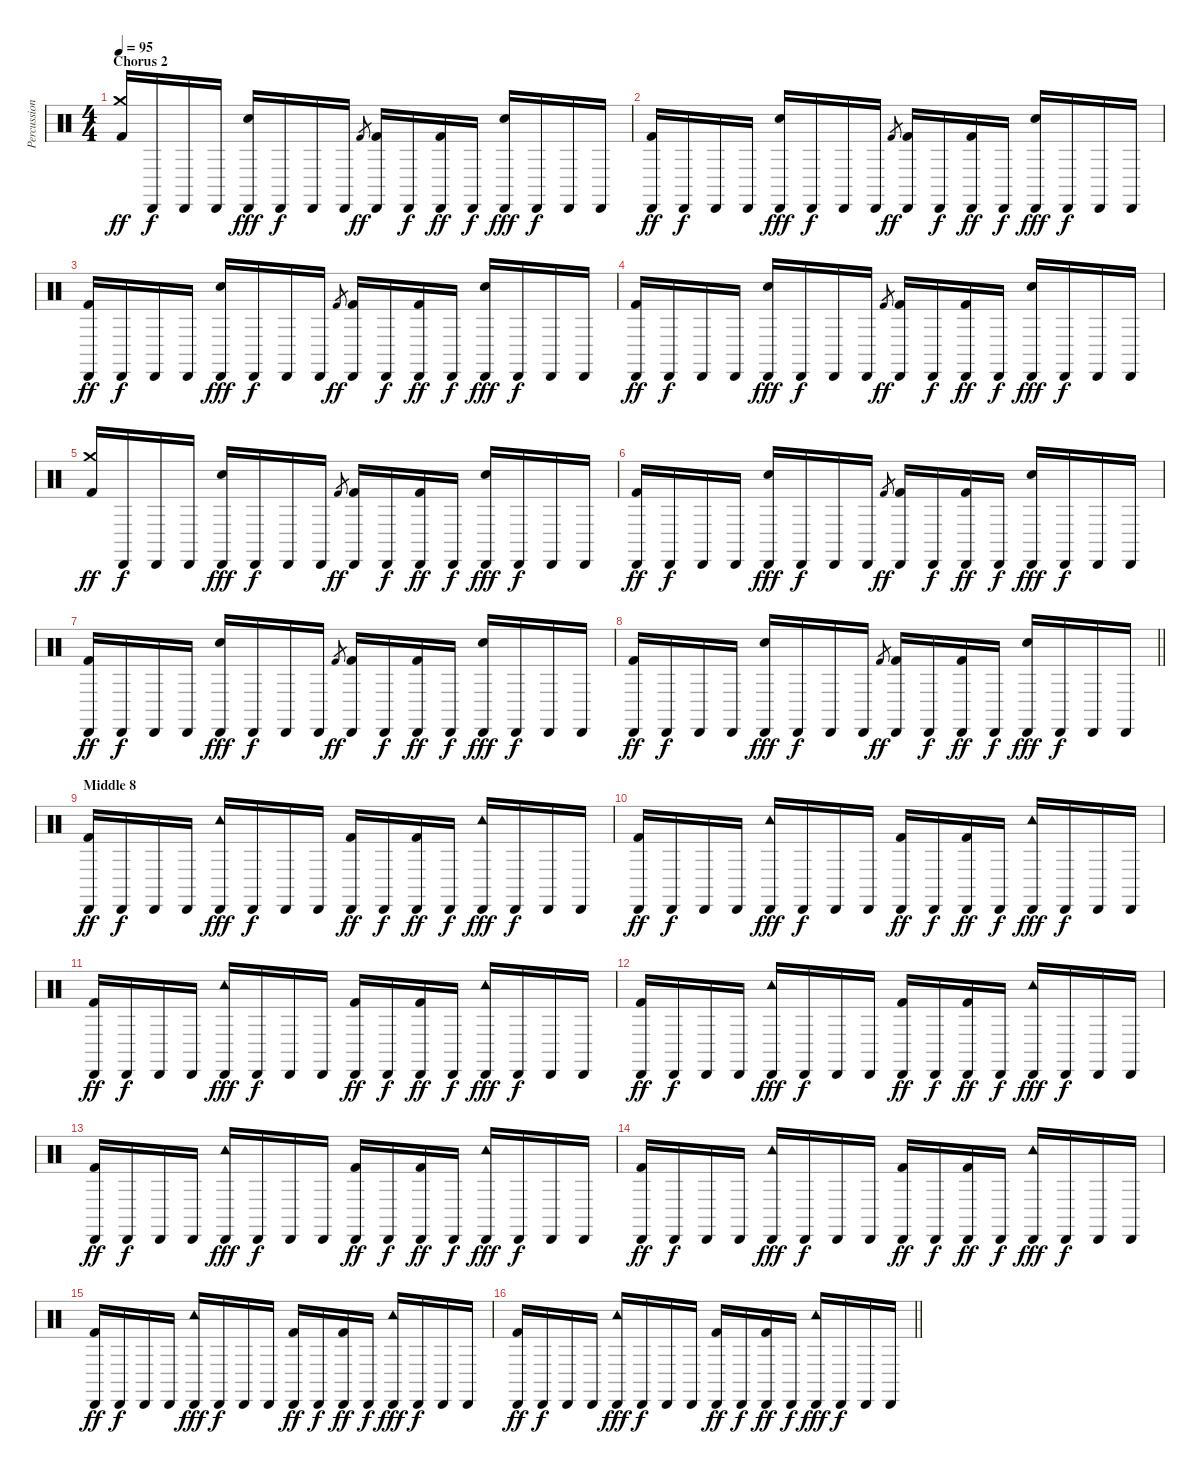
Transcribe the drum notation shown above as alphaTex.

\track ("Percussion" "Percussion") {instrument percussion}
\staff {score}
\articulation defaults
\ts (4 4)
\section ("" "Chorus 2")
\tempo 95
\clef neutral
\ks c
("Crash medium (hit)" "Kick (hit) 2").16{dy ff} "Cabasa (hit)".16{dy f} "Cabasa (hit)".16 "Cabasa (hit)".16 ("Cabasa (hit)" "Electric Snare (hit)").16{dy fff} "Cabasa (hit)".16{dy f} "Cabasa (hit)".16 "Cabasa (hit)".16 "Kick (hit) 2".8{gr dy ff} ("Cabasa (hit)" "Kick (hit) 2").16 "Cabasa (hit)".16{dy f} ("Cabasa (hit)" "Kick (hit) 2").16{dy ff} "Cabasa (hit)".16{dy f} ("Cabasa (hit)" "Electric Snare (hit)").16{dy fff} "Cabasa (hit)".16{dy f} "Cabasa (hit)".16 "Cabasa (hit)".16 |
("Cabasa (hit)" "Kick (hit) 2").16{dy ff} "Cabasa (hit)".16{dy f} "Cabasa (hit)".16 "Cabasa (hit)".16 ("Cabasa (hit)" "Electric Snare (hit)").16{dy fff} "Cabasa (hit)".16{dy f} "Cabasa (hit)".16 "Cabasa (hit)".16 "Kick (hit) 2".8{gr dy ff} ("Cabasa (hit)" "Kick (hit) 2").16 "Cabasa (hit)".16{dy f} ("Cabasa (hit)" "Kick (hit) 2").16{dy ff} "Cabasa (hit)".16{dy f} ("Cabasa (hit)" "Electric Snare (hit)").16{dy fff} "Cabasa (hit)".16{dy f} "Cabasa (hit)".16 "Cabasa (hit)".16 |
("Cabasa (hit)" "Kick (hit) 2").16{dy ff} "Cabasa (hit)".16{dy f} "Cabasa (hit)".16 "Cabasa (hit)".16 ("Cabasa (hit)" "Electric Snare (hit)").16{dy fff} "Cabasa (hit)".16{dy f} "Cabasa (hit)".16 "Cabasa (hit)".16 "Kick (hit) 2".8{gr dy ff} ("Cabasa (hit)" "Kick (hit) 2").16 "Cabasa (hit)".16{dy f} ("Cabasa (hit)" "Kick (hit) 2").16{dy ff} "Cabasa (hit)".16{dy f} ("Cabasa (hit)" "Electric Snare (hit)").16{dy fff} "Cabasa (hit)".16{dy f} "Cabasa (hit)".16 "Cabasa (hit)".16 |
("Cabasa (hit)" "Kick (hit) 2").16{dy ff} "Cabasa (hit)".16{dy f} "Cabasa (hit)".16 "Cabasa (hit)".16 ("Cabasa (hit)" "Electric Snare (hit)").16{dy fff} "Cabasa (hit)".16{dy f} "Cabasa (hit)".16 "Cabasa (hit)".16 "Kick (hit) 2".8{gr dy ff} ("Cabasa (hit)" "Kick (hit) 2").16 "Cabasa (hit)".16{dy f} ("Cabasa (hit)" "Kick (hit) 2").16{dy ff} "Cabasa (hit)".16{dy f} ("Cabasa (hit)" "Electric Snare (hit)").16{dy fff} "Cabasa (hit)".16{dy f} "Cabasa (hit)".16 "Cabasa (hit)".16 |
("Crash medium (hit)" "Kick (hit) 2").16{dy ff} "Cabasa (hit)".16{dy f} "Cabasa (hit)".16 "Cabasa (hit)".16 ("Cabasa (hit)" "Electric Snare (hit)").16{dy fff} "Cabasa (hit)".16{dy f} "Cabasa (hit)".16 "Cabasa (hit)".16 "Kick (hit) 2".8{gr dy ff} ("Cabasa (hit)" "Kick (hit) 2").16 "Cabasa (hit)".16{dy f} ("Cabasa (hit)" "Kick (hit) 2").16{dy ff} "Cabasa (hit)".16{dy f} ("Cabasa (hit)" "Electric Snare (hit)").16{dy fff} "Cabasa (hit)".16{dy f} "Cabasa (hit)".16 "Cabasa (hit)".16 |
("Cabasa (hit)" "Kick (hit) 2").16{dy ff} "Cabasa (hit)".16{dy f} "Cabasa (hit)".16 "Cabasa (hit)".16 ("Cabasa (hit)" "Electric Snare (hit)").16{dy fff} "Cabasa (hit)".16{dy f} "Cabasa (hit)".16 "Cabasa (hit)".16 "Kick (hit) 2".8{gr dy ff} ("Cabasa (hit)" "Kick (hit) 2").16 "Cabasa (hit)".16{dy f} ("Cabasa (hit)" "Kick (hit) 2").16{dy ff} "Cabasa (hit)".16{dy f} ("Cabasa (hit)" "Electric Snare (hit)").16{dy fff} "Cabasa (hit)".16{dy f} "Cabasa (hit)".16 "Cabasa (hit)".16 |
("Cabasa (hit)" "Kick (hit) 2").16{dy ff} "Cabasa (hit)".16{dy f} "Cabasa (hit)".16 "Cabasa (hit)".16 ("Cabasa (hit)" "Electric Snare (hit)").16{dy fff} "Cabasa (hit)".16{dy f} "Cabasa (hit)".16 "Cabasa (hit)".16 "Kick (hit) 2".8{gr dy ff} ("Cabasa (hit)" "Kick (hit) 2").16 "Cabasa (hit)".16{dy f} ("Cabasa (hit)" "Kick (hit) 2").16{dy ff} "Cabasa (hit)".16{dy f} ("Cabasa (hit)" "Electric Snare (hit)").16{dy fff} "Cabasa (hit)".16{dy f} "Cabasa (hit)".16 "Cabasa (hit)".16 |
\barLineRight lightlight
("Cabasa (hit)" "Kick (hit) 2").16{dy ff} "Cabasa (hit)".16{dy f} "Cabasa (hit)".16 "Cabasa (hit)".16 ("Cabasa (hit)" "Electric Snare (hit)").16{dy fff} "Cabasa (hit)".16{dy f} "Cabasa (hit)".16 "Cabasa (hit)".16 "Kick (hit) 2".8{gr dy ff} ("Cabasa (hit)" "Kick (hit) 2").16 "Cabasa (hit)".16{dy f} ("Cabasa (hit)" "Kick (hit) 2").16{dy ff} "Cabasa (hit)".16{dy f} ("Cabasa (hit)" "Electric Snare (hit)").16{dy fff} "Cabasa (hit)".16{dy f} "Cabasa (hit)".16 "Cabasa (hit)".16 |
\section ("" "Middle 8")
("Cabasa (hit)" "Kick (hit) 2").16{dy ff} "Cabasa (hit)".16{dy f} "Cabasa (hit)".16 "Cabasa (hit)".16 ("Cabasa (hit)" "Tambourine (hit)").16{dy fff} "Cabasa (hit)".16{dy f} "Cabasa (hit)".16 "Cabasa (hit)".16 ("Cabasa (hit)" "Kick (hit) 2").16{dy ff} "Cabasa (hit)".16{dy f} ("Cabasa (hit)" "Kick (hit) 2").16{dy ff} "Cabasa (hit)".16{dy f} ("Cabasa (hit)" "Tambourine (hit)").16{dy fff} "Cabasa (hit)".16{dy f} "Cabasa (hit)".16 "Cabasa (hit)".16 |
("Cabasa (hit)" "Kick (hit) 2").16{dy ff} "Cabasa (hit)".16{dy f} "Cabasa (hit)".16 "Cabasa (hit)".16 ("Cabasa (hit)" "Tambourine (hit)").16{dy fff} "Cabasa (hit)".16{dy f} "Cabasa (hit)".16 "Cabasa (hit)".16 ("Cabasa (hit)" "Kick (hit) 2").16{dy ff} "Cabasa (hit)".16{dy f} ("Cabasa (hit)" "Kick (hit) 2").16{dy ff} "Cabasa (hit)".16{dy f} ("Cabasa (hit)" "Tambourine (hit)").16{dy fff} "Cabasa (hit)".16{dy f} "Cabasa (hit)".16 "Cabasa (hit)".16 |
("Cabasa (hit)" "Kick (hit) 2").16{dy ff} "Cabasa (hit)".16{dy f} "Cabasa (hit)".16 "Cabasa (hit)".16 ("Cabasa (hit)" "Tambourine (hit)").16{dy fff} "Cabasa (hit)".16{dy f} "Cabasa (hit)".16 "Cabasa (hit)".16 ("Cabasa (hit)" "Kick (hit) 2").16{dy ff} "Cabasa (hit)".16{dy f} ("Cabasa (hit)" "Kick (hit) 2").16{dy ff} "Cabasa (hit)".16{dy f} ("Cabasa (hit)" "Tambourine (hit)").16{dy fff} "Cabasa (hit)".16{dy f} "Cabasa (hit)".16 "Cabasa (hit)".16 |
("Cabasa (hit)" "Kick (hit) 2").16{dy ff} "Cabasa (hit)".16{dy f} "Cabasa (hit)".16 "Cabasa (hit)".16 ("Cabasa (hit)" "Tambourine (hit)").16{dy fff} "Cabasa (hit)".16{dy f} "Cabasa (hit)".16 "Cabasa (hit)".16 ("Cabasa (hit)" "Kick (hit) 2").16{dy ff} "Cabasa (hit)".16{dy f} ("Cabasa (hit)" "Kick (hit) 2").16{dy ff} "Cabasa (hit)".16{dy f} ("Cabasa (hit)" "Tambourine (hit)").16{dy fff} "Cabasa (hit)".16{dy f} "Cabasa (hit)".16 "Cabasa (hit)".16 |
("Cabasa (hit)" "Kick (hit) 2").16{dy ff} "Cabasa (hit)".16{dy f} "Cabasa (hit)".16 "Cabasa (hit)".16 ("Cabasa (hit)" "Tambourine (hit)").16{dy fff} "Cabasa (hit)".16{dy f} "Cabasa (hit)".16 "Cabasa (hit)".16 ("Cabasa (hit)" "Kick (hit) 2").16{dy ff} "Cabasa (hit)".16{dy f} ("Cabasa (hit)" "Kick (hit) 2").16{dy ff} "Cabasa (hit)".16{dy f} ("Cabasa (hit)" "Tambourine (hit)").16{dy fff} "Cabasa (hit)".16{dy f} "Cabasa (hit)".16 "Cabasa (hit)".16 |
("Cabasa (hit)" "Kick (hit) 2").16{dy ff} "Cabasa (hit)".16{dy f} "Cabasa (hit)".16 "Cabasa (hit)".16 ("Cabasa (hit)" "Tambourine (hit)").16{dy fff} "Cabasa (hit)".16{dy f} "Cabasa (hit)".16 "Cabasa (hit)".16 ("Cabasa (hit)" "Kick (hit) 2").16{dy ff} "Cabasa (hit)".16{dy f} ("Cabasa (hit)" "Kick (hit) 2").16{dy ff} "Cabasa (hit)".16{dy f} ("Cabasa (hit)" "Tambourine (hit)").16{dy fff} "Cabasa (hit)".16{dy f} "Cabasa (hit)".16 "Cabasa (hit)".16 |
("Cabasa (hit)" "Kick (hit) 2").16{dy ff} "Cabasa (hit)".16{dy f} "Cabasa (hit)".16 "Cabasa (hit)".16 ("Cabasa (hit)" "Tambourine (hit)").16{dy fff} "Cabasa (hit)".16{dy f} "Cabasa (hit)".16 "Cabasa (hit)".16 ("Cabasa (hit)" "Kick (hit) 2").16{dy ff} "Cabasa (hit)".16{dy f} ("Cabasa (hit)" "Kick (hit) 2").16{dy ff} "Cabasa (hit)".16{dy f} ("Cabasa (hit)" "Tambourine (hit)").16{dy fff} "Cabasa (hit)".16{dy f} "Cabasa (hit)".16 "Cabasa (hit)".16 |
\barLineRight lightlight
("Cabasa (hit)" "Kick (hit) 2").16{dy ff} "Cabasa (hit)".16{dy f} "Cabasa (hit)".16 "Cabasa (hit)".16 ("Cabasa (hit)" "Tambourine (hit)").16{dy fff} "Cabasa (hit)".16{dy f} "Cabasa (hit)".16 "Cabasa (hit)".16 ("Cabasa (hit)" "Kick (hit) 2").16{dy ff} "Cabasa (hit)".16{dy f} ("Cabasa (hit)" "Kick (hit) 2").16{dy ff} "Cabasa (hit)".16{dy f} ("Cabasa (hit)" "Tambourine (hit)").16{dy fff} "Cabasa (hit)".16{dy f} "Cabasa (hit)".16 "Cabasa (hit)".16
